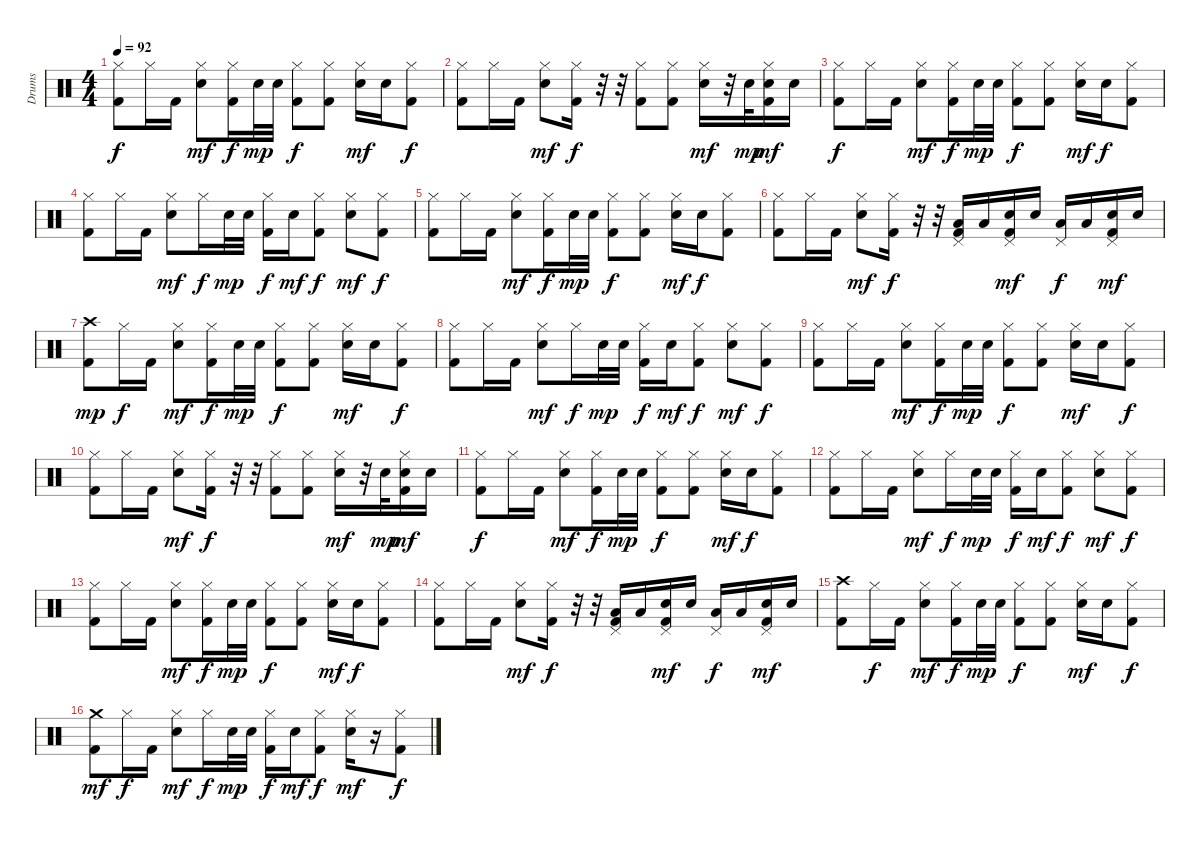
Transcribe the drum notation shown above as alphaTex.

\track ("Drums" "Drums") {instrument percussion}
\staff {score}
\articulation defaults
\ts (4 4)
\tempo 92
\clef neutral
\ks c
("Hi-Hat (closed)" "Kick (hit) 2").8{dy f} "Hi-Hat (closed)".16 "Kick (hit) 2".16 ("Hi-Hat (closed)" "Snare (hit) 2").8{dy mf} ("Hi-Hat (closed)" "Kick (hit) 2").16{dy f} "Snare (hit) 2".32{dy mp} "Snare (hit) 2".32 ("Hi-Hat (closed)" "Kick (hit) 2").8{dy f} ("Hi-Hat (closed)" "Kick (hit) 2").8 ("Hi-Hat (closed)" "Snare (hit) 2").16{dy mf} "Snare (hit) 2".16 ("Hi-Hat (closed)" "Kick (hit) 2").8{dy f} |
("Hi-Hat (closed)" "Kick (hit) 2").8 "Hi-Hat (closed)".16 "Kick (hit) 2".16 ("Hi-Hat (closed)" "Snare (hit) 2").8{dy mf} ("Hi-Hat (closed)" "Kick (hit) 2").16{dy f} r.32 r.32 ("Hi-Hat (closed)" "Kick (hit) 2").8 ("Hi-Hat (closed)" "Kick (hit) 2").8 ("Hi-Hat (closed)" "Snare (hit) 2").16{dy mf} r.32 "Snare (hit) 2".32{dy mp} ("Hi-Hat (closed)" "Snare (hit) 2" "Kick (hit) 2").16{dy mf} "Snare (hit) 2".16 |
("Hi-Hat (closed)" "Kick (hit) 2").8{dy f} "Hi-Hat (closed)".16 "Kick (hit) 2".16 ("Hi-Hat (closed)" "Snare (hit) 2").8{dy mf} ("Hi-Hat (closed)" "Kick (hit) 2").16{dy f} "Snare (hit) 2".32{dy mp} "Snare (hit) 2".32 ("Hi-Hat (closed)" "Kick (hit) 2").8{dy f} ("Hi-Hat (closed)" "Kick (hit) 2").8 ("Hi-Hat (closed)" "Snare (hit) 2").16{dy mf} "Snare (hit) 2".16{dy f} ("Hi-Hat (closed)" "Kick (hit) 2").8 |
("Hi-Hat (closed)" "Kick (hit) 2").8 "Hi-Hat (closed)".16 "Kick (hit) 2".16 ("Hi-Hat (closed)" "Snare (hit) 2").8{dy mf} "Hi-Hat (closed)".16{dy f} "Snare (hit) 2".32{dy mp} "Snare (hit) 2".32 ("Hi-Hat (closed)" "Kick (hit) 2").16{dy f} "Snare (hit) 2".16{dy mf} ("Hi-Hat (closed)" "Kick (hit) 2").8{dy f} ("Hi-Hat (closed)" "Snare (hit) 2").8{dy mf} ("Hi-Hat (closed)" "Kick (hit) 2").8{dy f} |
("Hi-Hat (closed)" "Kick (hit) 2").8 "Hi-Hat (closed)".16 "Kick (hit) 2".16 ("Hi-Hat (closed)" "Snare (hit) 2").8{dy mf} ("Hi-Hat (closed)" "Kick (hit) 2").16{dy f} "Snare (hit) 2".32{dy mp} "Snare (hit) 2".32 ("Hi-Hat (closed)" "Kick (hit) 2").8{dy f} ("Hi-Hat (closed)" "Kick (hit) 2").8 ("Hi-Hat (closed)" "Snare (hit) 2").16{dy mf} "Snare (hit) 2".16{dy f} ("Hi-Hat (closed)" "Kick (hit) 2").8 |
("Hi-Hat (closed)" "Kick (hit) 2").8 "Hi-Hat (closed)".16 "Kick (hit) 2".16 ("Hi-Hat (closed)" "Snare (hit) 2").8{dy mf} ("Hi-Hat (closed)" "Kick (hit) 2").16{dy f} r.32 r.32 ("Pedal Hi-Hat (hit)" "Low Tom (hit)" "Kick (hit) 2").16 "Low Tom (hit)".16 ("Pedal Hi-Hat (hit)" "Snare (hit) 2" "Kick (hit) 2").16{dy mf} "Snare (hit) 2".16 ("Pedal Hi-Hat (hit)" "Low Tom (hit)").16{dy f} "Low Tom (hit)".16 ("Pedal Hi-Hat (hit)" "Snare (hit) 2" "Kick (hit) 2").16{dy mf} "Snare (hit) 2".16 |
("Crash high (hit)" "Kick (hit) 2").8{dy mp} "Hi-Hat (closed)".16{dy f} "Kick (hit) 2".16 ("Hi-Hat (closed)" "Snare (hit) 2").8{dy mf} ("Hi-Hat (closed)" "Kick (hit) 2").16{dy f} "Snare (hit) 2".32{dy mp} "Snare (hit) 2".32 ("Hi-Hat (closed)" "Kick (hit) 2").8{dy f} ("Hi-Hat (closed)" "Kick (hit) 2").8 ("Hi-Hat (closed)" "Snare (hit) 2").16{dy mf} "Snare (hit) 2".16 ("Hi-Hat (closed)" "Kick (hit) 2").8{dy f} |
("Hi-Hat (closed)" "Kick (hit) 2").8 "Hi-Hat (closed)".16 "Kick (hit) 2".16 ("Hi-Hat (closed)" "Snare (hit) 2").8{dy mf} "Hi-Hat (closed)".16{dy f} "Snare (hit) 2".32{dy mp} "Snare (hit) 2".32 ("Hi-Hat (closed)" "Kick (hit) 2").16{dy f} "Snare (hit) 2".16{dy mf} ("Hi-Hat (closed)" "Kick (hit) 2").8{dy f} ("Hi-Hat (closed)" "Snare (hit) 2").8{dy mf} ("Hi-Hat (closed)" "Kick (hit) 2").8{dy f} |
("Hi-Hat (closed)" "Kick (hit) 2").8 "Hi-Hat (closed)".16 "Kick (hit) 2".16 ("Hi-Hat (closed)" "Snare (hit) 2").8{dy mf} ("Hi-Hat (closed)" "Kick (hit) 2").16{dy f} "Snare (hit) 2".32{dy mp} "Snare (hit) 2".32 ("Hi-Hat (closed)" "Kick (hit) 2").8{dy f} ("Hi-Hat (closed)" "Kick (hit) 2").8 ("Hi-Hat (closed)" "Snare (hit) 2").16{dy mf} "Snare (hit) 2".16 ("Hi-Hat (closed)" "Kick (hit) 2").8{dy f} |
("Hi-Hat (closed)" "Kick (hit) 2").8 "Hi-Hat (closed)".16 "Kick (hit) 2".16 ("Hi-Hat (closed)" "Snare (hit) 2").8{dy mf} ("Hi-Hat (closed)" "Kick (hit) 2").16{dy f} r.32 r.32 ("Hi-Hat (closed)" "Kick (hit) 2").8 ("Hi-Hat (closed)" "Kick (hit) 2").8 ("Hi-Hat (closed)" "Snare (hit) 2").16{dy mf} r.32 "Snare (hit) 2".32{dy mp} ("Hi-Hat (closed)" "Snare (hit) 2" "Kick (hit) 2").16{dy mf} "Snare (hit) 2".16 |
("Hi-Hat (closed)" "Kick (hit) 2").8{dy f} "Hi-Hat (closed)".16 "Kick (hit) 2".16 ("Hi-Hat (closed)" "Snare (hit) 2").8{dy mf} ("Hi-Hat (closed)" "Kick (hit) 2").16{dy f} "Snare (hit) 2".32{dy mp} "Snare (hit) 2".32 ("Hi-Hat (closed)" "Kick (hit) 2").8{dy f} ("Hi-Hat (closed)" "Kick (hit) 2").8 ("Hi-Hat (closed)" "Snare (hit) 2").16{dy mf} "Snare (hit) 2".16{dy f} ("Hi-Hat (closed)" "Kick (hit) 2").8 |
("Hi-Hat (closed)" "Kick (hit) 2").8 "Hi-Hat (closed)".16 "Kick (hit) 2".16 ("Hi-Hat (closed)" "Snare (hit) 2").8{dy mf} "Hi-Hat (closed)".16{dy f} "Snare (hit) 2".32{dy mp} "Snare (hit) 2".32 ("Hi-Hat (closed)" "Kick (hit) 2").16{dy f} "Snare (hit) 2".16{dy mf} ("Hi-Hat (closed)" "Kick (hit) 2").8{dy f} ("Hi-Hat (closed)" "Snare (hit) 2").8{dy mf} ("Hi-Hat (closed)" "Kick (hit) 2").8{dy f} |
("Hi-Hat (closed)" "Kick (hit) 2").8 "Hi-Hat (closed)".16 "Kick (hit) 2".16 ("Hi-Hat (closed)" "Snare (hit) 2").8{dy mf} ("Hi-Hat (closed)" "Kick (hit) 2").16{dy f} "Snare (hit) 2".32{dy mp} "Snare (hit) 2".32 ("Hi-Hat (closed)" "Kick (hit) 2").8{dy f} ("Hi-Hat (closed)" "Kick (hit) 2").8 ("Hi-Hat (closed)" "Snare (hit) 2").16{dy mf} "Snare (hit) 2".16{dy f} ("Hi-Hat (closed)" "Kick (hit) 2").8 |
("Hi-Hat (closed)" "Kick (hit) 2").8 "Hi-Hat (closed)".16 "Kick (hit) 2".16 ("Hi-Hat (closed)" "Snare (hit) 2").8{dy mf} ("Hi-Hat (closed)" "Kick (hit) 2").16{dy f} r.32 r.32 ("Pedal Hi-Hat (hit)" "Low Tom (hit)" "Kick (hit) 2").16 "Low Tom (hit)".16 ("Pedal Hi-Hat (hit)" "Snare (hit) 2" "Kick (hit) 2").16{dy mf} "Snare (hit) 2".16 ("Pedal Hi-Hat (hit)" "Low Tom (hit)").16{dy f} "Low Tom (hit)".16 ("Pedal Hi-Hat (hit)" "Snare (hit) 2" "Kick (hit) 2").16{dy mf} "Snare (hit) 2".16 |
("Crash high (hit)" "Kick (hit) 2").8 "Hi-Hat (closed)".16{dy f} "Kick (hit) 2".16 ("Hi-Hat (closed)" "Snare (hit) 2").8{dy mf} ("Hi-Hat (closed)" "Kick (hit) 2").16{dy f} "Snare (hit) 2".32{dy mp} "Snare (hit) 2".32 ("Hi-Hat (closed)" "Kick (hit) 2").8{dy f} ("Hi-Hat (closed)" "Kick (hit) 2").8 ("Hi-Hat (closed)" "Snare (hit) 2").16{dy mf} "Snare (hit) 2".16 ("Hi-Hat (closed)" "Kick (hit) 2").8{dy f} |
("Crash medium (hit)" "Kick (hit) 2").8{dy mf} "Hi-Hat (closed)".16{dy f} "Kick (hit) 2".16 ("Hi-Hat (closed)" "Snare (hit) 2").8{dy mf} "Hi-Hat (closed)".16{dy f} "Snare (hit) 2".32{dy mp} "Snare (hit) 2".32 ("Hi-Hat (closed)" "Kick (hit) 2").16{dy f} "Snare (hit) 2".16{dy mf} ("Hi-Hat (closed)" "Kick (hit) 2").8{dy f} ("Hi-Hat (closed)" "Snare (hit) 2").16{dy mf} r.16 ("Hi-Hat (closed)" "Kick (hit) 2").8{dy f}
